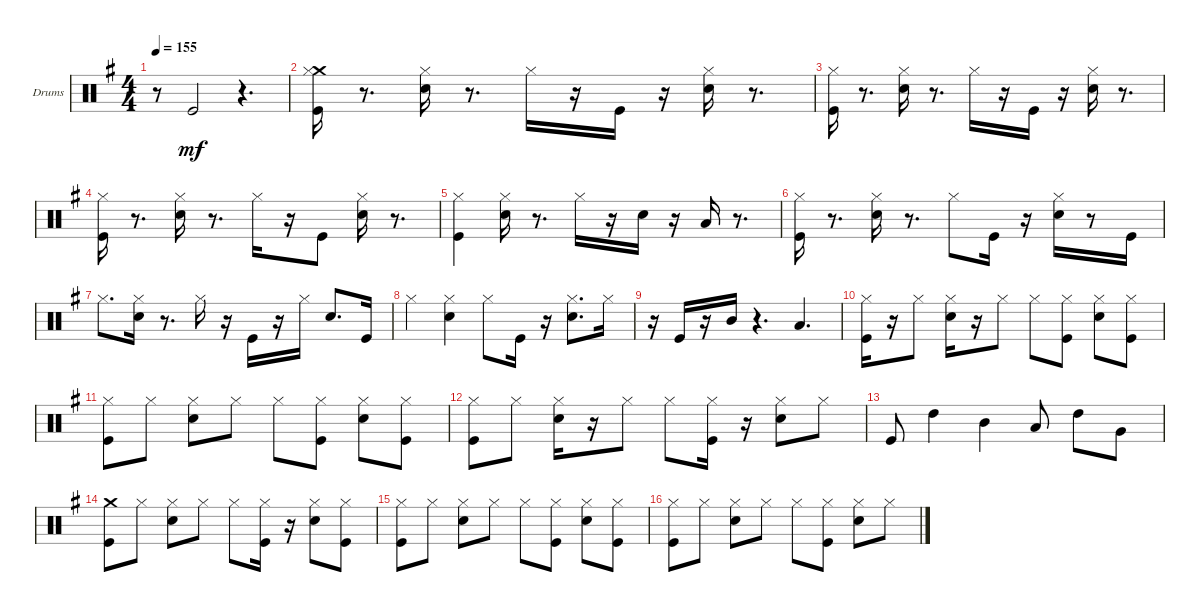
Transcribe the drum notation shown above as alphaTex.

\bracketExtendMode groupsimilarinstruments
\firstSystemTrackNameOrientation horizontal
\otherSystemsTrackNameOrientation horizontal
\track ("Drumkit" "Drums") {instrument percussion}
\staff {score}
\articulation defaults
\ts (4 4)
\tempo 155
\clef neutral
\scale
0.333333
\ks g
r.8{dy mf} "Kick (hit)".2 r.4{d} |
\scale
0.333333 ("Crash medium (hit)" "Kick (hit)" "Hi-Hat (closed)").16 r.8{d} ("Hi-Hat (closed)" "Snare (hit) 2").16 r.8{d} "Hi-Hat (closed)".16 r.16 "Kick (hit)".16 r.16 ("Hi-Hat (closed)" "Snare (hit) 2").16 r.8{d} |
\scale
0.333333 ("Hi-Hat (closed)" "Kick (hit)").16 r.8{d} ("Snare (hit) 2" "Hi-Hat (closed)").16 r.8{d} "Hi-Hat (closed)".16 r.16 "Kick (hit)".16 r.16 ("Snare (hit) 2" "Hi-Hat (closed)").16 r.8{d} |
\scale
0.333333 ("Kick (hit)" "Hi-Hat (closed)").16 r.8{d} ("Snare (hit) 2" "Hi-Hat (closed)").16 r.8{d} "Hi-Hat (closed)".16 r.16 "Kick (hit)".8 ("Hi-Hat (closed)" "Snare (hit) 2").16 r.8{d} |
\scale
0.333333 ("Hi-Hat (closed)" "Kick (hit)").4 ("Snare (hit) 2" "Hi-Hat (closed)").16 r.8{d} "Hi-Hat (closed)".16 r.16 "Snare (hit) 2".16 r.16 "Low Tom (hit)".16 r.8{d} |
\scale
0.333333 ("Kick (hit)" "Hi-Hat (closed)").16 r.8{d} ("Snare (hit) 2" "Hi-Hat (closed)").16 r.8{d} "Hi-Hat (closed)".8 "Kick (hit)".16 r.16 ("Hi-Hat (closed)" "Snare (hit) 2").16 r.8 "Kick (hit)".16 |
\scale
0.333333 "Hi-Hat (closed)".8{d} ("Hi-Hat (closed)" "Snare (hit) 2").16 r.8{d} "Hi-Hat (closed)".16 r.16 "Kick (hit)".16 r.16 "Hi-Hat (closed)".16 "Snare (hit) 2".8{d} "Kick (hit)".16 |
\scale
0.333333 "Hi-Hat (closed)".4 ("Snare (hit) 2" "Hi-Hat (closed)").4 "Hi-Hat (closed)".8 "Kick (hit)".16 r.16 ("Hi-Hat (closed)" "Snare (hit) 2").8{d} "Hi-Hat (closed)".16 |
\scale
0.333333 r.16 "Kick (hit)".16 r.16 "Mid Tom (hit)".16 r.4{d} "Low Tom (hit)".4{d} |
\scale
0.333333 ("Kick (hit)" "Hi-Hat (closed)").16 r.16 "Hi-Hat (closed)".8 ("Hi-Hat (closed)" "Snare (hit) 2").16 r.16 "Hi-Hat (closed)".8 "Hi-Hat (closed)".8 ("Hi-Hat (closed)" "Kick (hit)").8 ("Hi-Hat (closed)" "Snare (hit) 2").8 ("Kick (hit)" "Hi-Hat (closed)").8 |
\scale
0.333333 ("Hi-Hat (closed)" "Kick (hit)").8 "Hi-Hat (closed)".8 ("Snare (hit) 2" "Hi-Hat (closed)").8 "Hi-Hat (closed)".8 "Hi-Hat (closed)".8 ("Kick (hit)" "Hi-Hat (closed)").8 ("Hi-Hat (closed)" "Snare (hit) 2").8 ("Kick (hit)" "Hi-Hat (closed)").8 |
\scale
0.333333 ("Kick (hit)" "Hi-Hat (closed)").8 "Hi-Hat (closed)".8 ("Hi-Hat (closed)" "Snare (hit) 2").16 r.16 "Hi-Hat (closed)".8 "Hi-Hat (closed)".8 ("Hi-Hat (closed)" "Kick (hit)").16 r.16 ("Hi-Hat (closed)" "Snare (hit) 2").8 "Hi-Hat (closed)".8 |
\scale
0.333333 "Kick (hit)".8 "High Tom (hit)".4 "Mid Tom (hit)".4 "Low Tom (hit)".8 "High Tom (hit)".8 "Very Low Tom (hit)".8 |
\scale
0.333333 ("Kick (hit)" "Crash medium (hit)").8 "Hi-Hat (closed)".8 ("Hi-Hat (closed)" "Snare (hit) 2").8 "Hi-Hat (closed)".8 "Hi-Hat (closed)".8 ("Hi-Hat (closed)" "Kick (hit)").16 r.16 ("Hi-Hat (closed)" "Snare (hit) 2").8 ("Hi-Hat (closed)" "Kick (hit)").8 |
\scale
0.333333 ("Kick (hit)" "Hi-Hat (closed)").8 "Hi-Hat (closed)".8 ("Hi-Hat (closed)" "Snare (hit) 2").8 "Hi-Hat (closed)".8 "Hi-Hat (closed)".8 ("Kick (hit)" "Hi-Hat (closed)").8 ("Hi-Hat (closed)" "Snare (hit) 2").8 ("Kick (hit)" "Hi-Hat (closed)").8 |
\scale
0.333333 ("Kick (hit)" "Hi-Hat (closed)").8 "Hi-Hat (closed)".8 ("Hi-Hat (closed)" "Snare (hit) 2").8 "Hi-Hat (closed)".8 "Hi-Hat (closed)".8 ("Hi-Hat (closed)" "Kick (hit)").8 ("Hi-Hat (closed)" "Snare (hit) 2").8 "Hi-Hat (closed)".8
